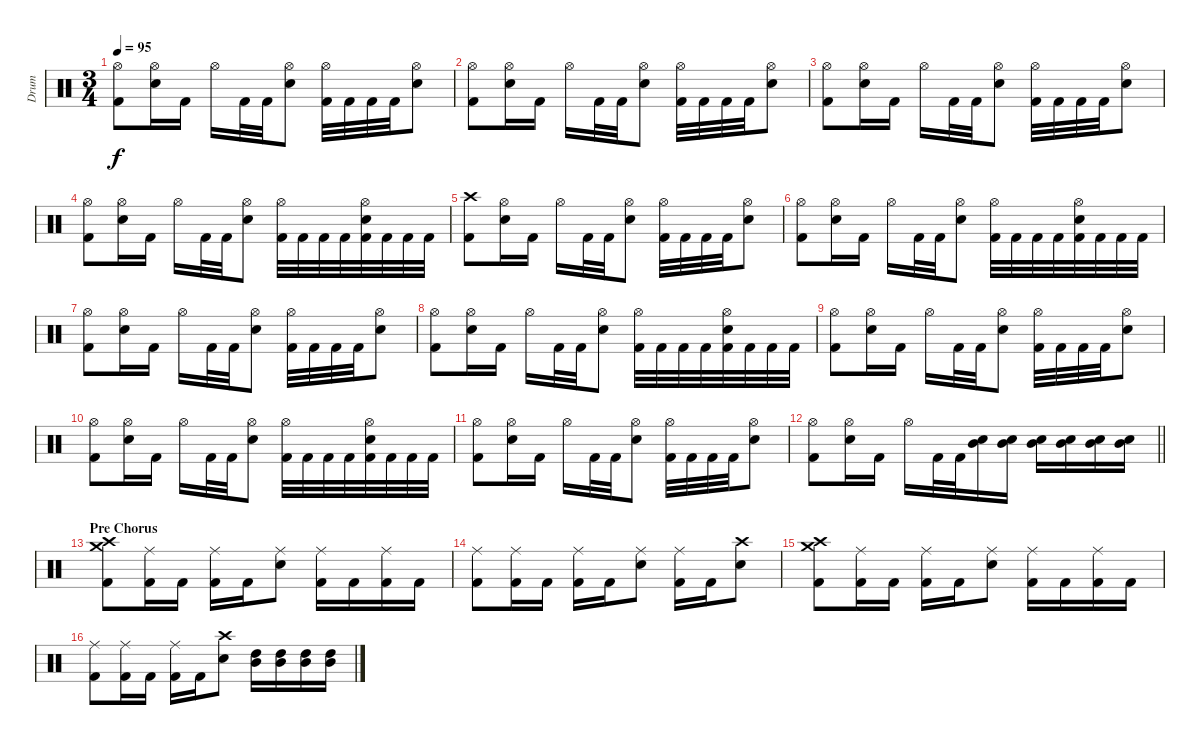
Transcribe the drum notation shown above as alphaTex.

\track ("Drum" "Drum") {instrument percussion}
\staff {score}
\articulation defaults
\ts (3 4)
\tempo 95
\clef neutral
\ks c
("Hi-Hat (open)" "Kick (hit) 2").8{dy f} ("Hi-Hat (open)" "Electric Snare (hit)").16 "Kick (hit) 2".16 "Hi-Hat (open)".16 "Kick (hit) 2".32 "Kick (hit) 2".32 ("Hi-Hat (open)" "Electric Snare (hit)").8 ("Hi-Hat (open)" "Kick (hit) 2").32 "Kick (hit) 2".32 "Kick (hit) 2".32 "Kick (hit) 2".32 ("Hi-Hat (open)" "Electric Snare (hit)").8 |
("Hi-Hat (open)" "Kick (hit) 2").8 ("Hi-Hat (open)" "Electric Snare (hit)").16 "Kick (hit) 2".16 "Hi-Hat (open)".16 "Kick (hit) 2".32 "Kick (hit) 2".32 ("Hi-Hat (open)" "Electric Snare (hit)").8 ("Hi-Hat (open)" "Kick (hit) 2").32 "Kick (hit) 2".32 "Kick (hit) 2".32 "Kick (hit) 2".32 ("Hi-Hat (open)" "Electric Snare (hit)").8 |
("Hi-Hat (open)" "Kick (hit) 2").8 ("Hi-Hat (open)" "Electric Snare (hit)").16 "Kick (hit) 2".16 "Hi-Hat (open)".16 "Kick (hit) 2".32 "Kick (hit) 2".32 ("Hi-Hat (open)" "Electric Snare (hit)").8 ("Hi-Hat (open)" "Kick (hit) 2").32 "Kick (hit) 2".32 "Kick (hit) 2".32 "Kick (hit) 2".32 ("Hi-Hat (open)" "Electric Snare (hit)").8 |
("Hi-Hat (open)" "Kick (hit) 2").8 ("Hi-Hat (open)" "Electric Snare (hit)").16 "Kick (hit) 2".16 "Hi-Hat (open)".16 "Kick (hit) 2".32 "Kick (hit) 2".32 ("Hi-Hat (open)" "Electric Snare (hit)").8 ("Hi-Hat (open)" "Kick (hit) 2").32 "Kick (hit) 2".32 "Kick (hit) 2".32 "Kick (hit) 2".32 ("Hi-Hat (open)" "Electric Snare (hit)" "Kick (hit) 2").32 "Kick (hit) 2".32 "Kick (hit) 2".32 "Kick (hit) 2".32 |
("Crash high (hit)" "Kick (hit) 2").8 ("Hi-Hat (open)" "Electric Snare (hit)").16 "Kick (hit) 2".16 "Hi-Hat (open)".16 "Kick (hit) 2".32 "Kick (hit) 2".32 ("Hi-Hat (open)" "Electric Snare (hit)").8 ("Hi-Hat (open)" "Kick (hit) 2").32 "Kick (hit) 2".32 "Kick (hit) 2".32 "Kick (hit) 2".32 ("Hi-Hat (open)" "Electric Snare (hit)").8 |
("Hi-Hat (open)" "Kick (hit) 2").8 ("Hi-Hat (open)" "Electric Snare (hit)").16 "Kick (hit) 2".16 "Hi-Hat (open)".16 "Kick (hit) 2".32 "Kick (hit) 2".32 ("Hi-Hat (open)" "Electric Snare (hit)").8 ("Hi-Hat (open)" "Kick (hit) 2").32 "Kick (hit) 2".32 "Kick (hit) 2".32 "Kick (hit) 2".32 ("Hi-Hat (open)" "Electric Snare (hit)" "Kick (hit) 2").32 "Kick (hit) 2".32 "Kick (hit) 2".32 "Kick (hit) 2".32 |
("Hi-Hat (open)" "Kick (hit) 2").8 ("Hi-Hat (open)" "Electric Snare (hit)").16 "Kick (hit) 2".16 "Hi-Hat (open)".16 "Kick (hit) 2".32 "Kick (hit) 2".32 ("Hi-Hat (open)" "Electric Snare (hit)").8 ("Hi-Hat (open)" "Kick (hit) 2").32 "Kick (hit) 2".32 "Kick (hit) 2".32 "Kick (hit) 2".32 ("Hi-Hat (open)" "Electric Snare (hit)").8 |
("Hi-Hat (open)" "Kick (hit) 2").8 ("Hi-Hat (open)" "Electric Snare (hit)").16 "Kick (hit) 2".16 "Hi-Hat (open)".16 "Kick (hit) 2".32 "Kick (hit) 2".32 ("Hi-Hat (open)" "Electric Snare (hit)").8 ("Hi-Hat (open)" "Kick (hit) 2").32 "Kick (hit) 2".32 "Kick (hit) 2".32 "Kick (hit) 2".32 ("Hi-Hat (open)" "Electric Snare (hit)" "Kick (hit) 2").32 "Kick (hit) 2".32 "Kick (hit) 2".32 "Kick (hit) 2".32 |
("Hi-Hat (open)" "Kick (hit) 2").8 ("Hi-Hat (open)" "Electric Snare (hit)").16 "Kick (hit) 2".16 "Hi-Hat (open)".16 "Kick (hit) 2".32 "Kick (hit) 2".32 ("Hi-Hat (open)" "Electric Snare (hit)").8 ("Hi-Hat (open)" "Kick (hit) 2").32 "Kick (hit) 2".32 "Kick (hit) 2".32 "Kick (hit) 2".32 ("Hi-Hat (open)" "Electric Snare (hit)").8 |
("Hi-Hat (open)" "Kick (hit) 2").8 ("Hi-Hat (open)" "Electric Snare (hit)").16 "Kick (hit) 2".16 "Hi-Hat (open)".16 "Kick (hit) 2".32 "Kick (hit) 2".32 ("Hi-Hat (open)" "Electric Snare (hit)").8 ("Hi-Hat (open)" "Kick (hit) 2").32 "Kick (hit) 2".32 "Kick (hit) 2".32 "Kick (hit) 2".32 ("Hi-Hat (open)" "Electric Snare (hit)" "Kick (hit) 2").32 "Kick (hit) 2".32 "Kick (hit) 2".32 "Kick (hit) 2".32 |
("Hi-Hat (open)" "Kick (hit) 2").8 ("Hi-Hat (open)" "Electric Snare (hit)").16 "Kick (hit) 2".16 "Hi-Hat (open)".16 "Kick (hit) 2".32 "Kick (hit) 2".32 ("Hi-Hat (open)" "Electric Snare (hit)").8 ("Hi-Hat (open)" "Kick (hit) 2").32 "Kick (hit) 2".32 "Kick (hit) 2".32 "Kick (hit) 2".32 ("Hi-Hat (open)" "Electric Snare (hit)").8 |
\barLineRight lightlight
("Hi-Hat (open)" "Kick (hit) 2").8 ("Hi-Hat (open)" "Electric Snare (hit)").16 "Kick (hit) 2".16 "Hi-Hat (open)".16 "Kick (hit) 2".32 "Kick (hit) 2".32 ("Electric Snare (hit)" "Mid Tom (hit)").16 ("Electric Snare (hit)" "Mid Tom (hit)").16 ("Electric Snare (hit)" "Mid Tom (hit)").16 ("Electric Snare (hit)" "Mid Tom (hit)").16 ("Electric Snare (hit)" "Mid Tom (hit)").16 ("Electric Snare (hit)" "Mid Tom (hit)").16 |
\section ("" "Pre Chorus")
("Crash medium (hit)" "Crash high (hit)" "Kick (hit) 2").8 ("Ride (middle)" "Kick (hit) 2").16 "Kick (hit) 2".16 ("Ride (middle)" "Kick (hit) 2").16 "Kick (hit) 2".16 ("Ride (middle)" "Electric Snare (hit)").8 ("Ride (middle)" "Kick (hit) 2").16 "Kick (hit) 2".16 ("Ride (middle)" "Kick (hit) 2").16 "Kick (hit) 2".16 |
("Ride (middle)" "Kick (hit) 2").8 ("Ride (middle)" "Kick (hit) 2").16 "Kick (hit) 2".16 ("Ride (middle)" "Kick (hit) 2").16 "Kick (hit) 2".16 ("Ride (middle)" "Electric Snare (hit)").8 ("Ride (middle)" "Kick (hit) 2").16 "Kick (hit) 2".16 ("Crash high (hit)" "Electric Snare (hit)").8 |
("Crash medium (hit)" "Crash high (hit)" "Kick (hit) 2").8 ("Ride (middle)" "Kick (hit) 2").16 "Kick (hit) 2".16 ("Ride (middle)" "Kick (hit) 2").16 "Kick (hit) 2".16 ("Ride (middle)" "Electric Snare (hit)").8 ("Ride (middle)" "Kick (hit) 2").16 "Kick (hit) 2".16 ("Ride (middle)" "Kick (hit) 2").16 "Kick (hit) 2".16 |
("Ride (middle)" "Kick (hit) 2").8 ("Ride (middle)" "Kick (hit) 2").16 "Kick (hit) 2".16 ("Ride (middle)" "Kick (hit) 2").16 "Kick (hit) 2".16 ("Crash high (hit)" "Electric Snare (hit)").8 ("High Tom (hit)" "Mid Tom (hit)").16 ("High Tom (hit)" "Mid Tom (hit)").16 ("High Tom (hit)" "Mid Tom (hit)").16 ("High Tom (hit)" "Mid Tom (hit)").16
